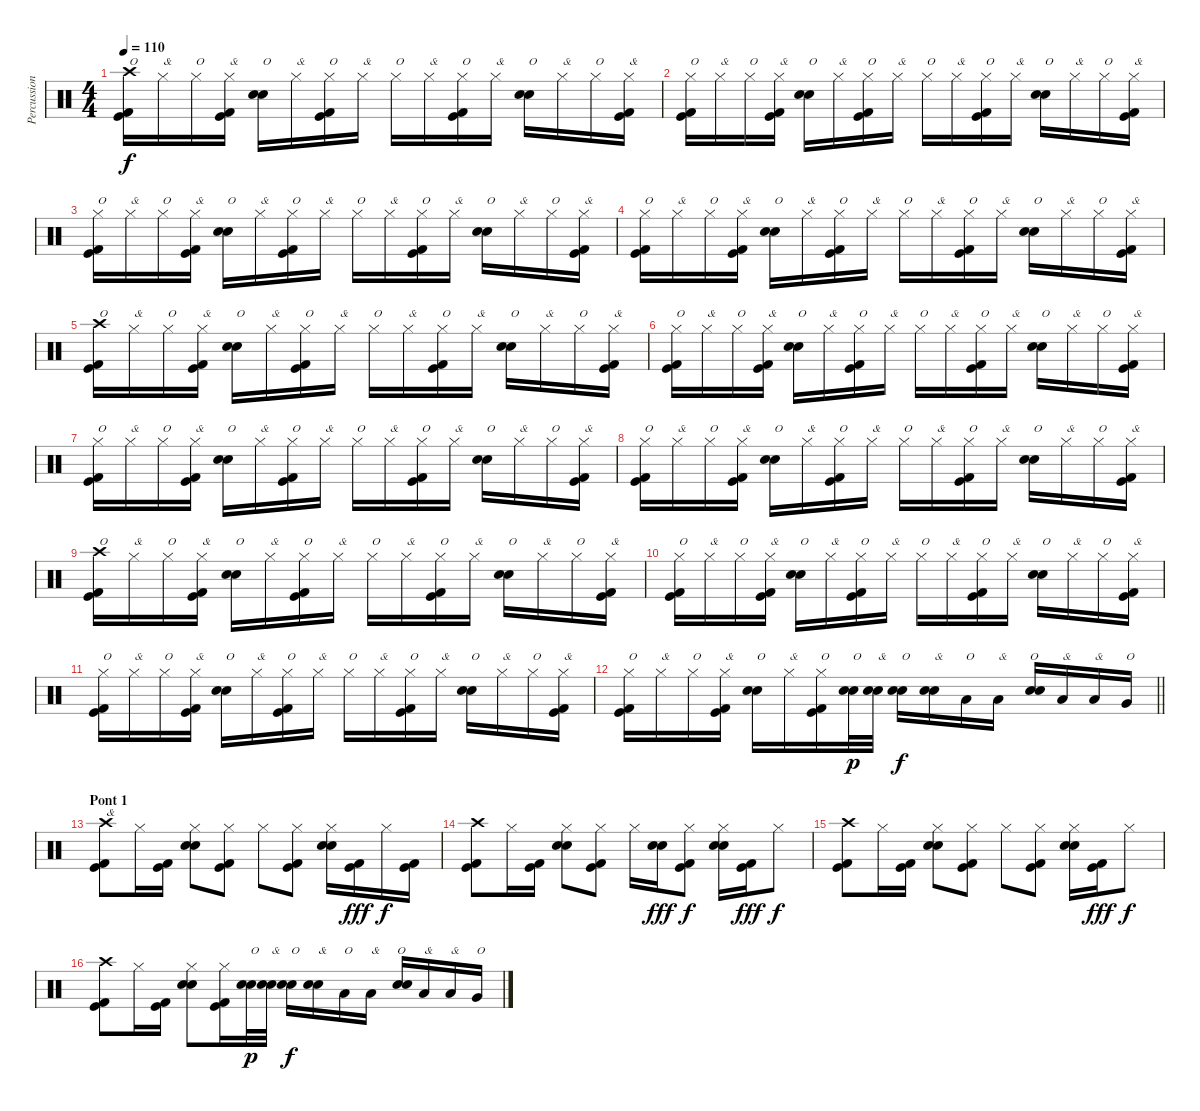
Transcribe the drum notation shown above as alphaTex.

\track ("Percussions" "Percussion") {instrument percussion}
\staff {score}
\articulation defaults
\ts (4 4)
\tempo 110
\clef neutral
\ks c
("Crash high (hit)" "Kick (hit)" "Kick (hit) 2").16{txt "O" dy f} "Hi-Hat (closed)".16{txt "&"} "Hi-Hat (closed)".16{txt "O"} ("Hi-Hat (closed)" "Kick (hit)" "Kick (hit) 2").16{txt "&"} ("Snare (hit) 2" "Electric Snare (hit)").16{txt "O"} "Hi-Hat (closed)".16{txt "&"} ("Hi-Hat (closed)" "Kick (hit) 2" "Kick (hit)").16{txt "O"} "Hi-Hat (closed)".16{txt "&"} "Hi-Hat (closed)".16{txt "O"} "Hi-Hat (closed)".16{txt "&"} ("Hi-Hat (closed)" "Kick (hit)" "Kick (hit) 2").16{txt "O"} "Hi-Hat (closed)".16{txt "&"} ("Snare (hit) 2" "Electric Snare (hit)").16{txt "O"} "Hi-Hat (closed)".16{txt "&"} "Hi-Hat (closed)".16{txt "O"} ("Hi-Hat (closed)" "Kick (hit)" "Kick (hit) 2").16{txt "&"} |
("Hi-Hat (closed)" "Kick (hit)" "Kick (hit) 2").16{txt "O"} "Hi-Hat (closed)".16{txt "&"} "Hi-Hat (closed)".16{txt "O"} ("Hi-Hat (closed)" "Kick (hit)" "Kick (hit) 2").16{txt "&"} ("Snare (hit) 2" "Electric Snare (hit)").16{txt "O"} "Hi-Hat (closed)".16{txt "&"} ("Hi-Hat (closed)" "Kick (hit) 2" "Kick (hit)").16{txt "O"} "Hi-Hat (closed)".16{txt "&"} "Hi-Hat (closed)".16{txt "O"} "Hi-Hat (closed)".16{txt "&"} ("Hi-Hat (closed)" "Kick (hit)" "Kick (hit) 2").16{txt "O"} "Hi-Hat (closed)".16{txt "&"} ("Snare (hit) 2" "Electric Snare (hit)").16{txt "O"} "Hi-Hat (closed)".16{txt "&"} "Hi-Hat (closed)".16{txt "O"} ("Hi-Hat (closed)" "Kick (hit)" "Kick (hit) 2").16{txt "&"} |
("Hi-Hat (closed)" "Kick (hit)" "Kick (hit) 2").16{txt "O"} "Hi-Hat (closed)".16{txt "&"} "Hi-Hat (closed)".16{txt "O"} ("Hi-Hat (closed)" "Kick (hit)" "Kick (hit) 2").16{txt "&"} ("Snare (hit) 2" "Electric Snare (hit)").16{txt "O"} "Hi-Hat (closed)".16{txt "&"} ("Hi-Hat (closed)" "Kick (hit) 2" "Kick (hit)").16{txt "O"} "Hi-Hat (closed)".16{txt "&"} "Hi-Hat (closed)".16{txt "O"} "Hi-Hat (closed)".16{txt "&"} ("Hi-Hat (closed)" "Kick (hit)" "Kick (hit) 2").16{txt "O"} "Hi-Hat (closed)".16{txt "&"} ("Snare (hit) 2" "Electric Snare (hit)").16{txt "O"} "Hi-Hat (closed)".16{txt "&"} "Hi-Hat (closed)".16{txt "O"} ("Hi-Hat (closed)" "Kick (hit)" "Kick (hit) 2").16{txt "&"} |
("Hi-Hat (closed)" "Kick (hit)" "Kick (hit) 2").16{txt "O"} "Hi-Hat (closed)".16{txt "&"} "Hi-Hat (closed)".16{txt "O"} ("Hi-Hat (closed)" "Kick (hit)" "Kick (hit) 2").16{txt "&"} ("Snare (hit) 2" "Electric Snare (hit)").16{txt "O"} "Hi-Hat (closed)".16{txt "&"} ("Hi-Hat (closed)" "Kick (hit) 2" "Kick (hit)").16{txt "O"} "Hi-Hat (closed)".16{txt "&"} "Hi-Hat (closed)".16{txt "O"} "Hi-Hat (closed)".16{txt "&"} ("Hi-Hat (closed)" "Kick (hit)" "Kick (hit) 2").16{txt "O"} "Hi-Hat (closed)".16{txt "&"} ("Snare (hit) 2" "Electric Snare (hit)").16{txt "O"} "Hi-Hat (closed)".16{txt "&"} "Hi-Hat (closed)".16{txt "O"} ("Hi-Hat (closed)" "Kick (hit)" "Kick (hit) 2").16{txt "&"} |
("Crash high (hit)" "Kick (hit)" "Kick (hit) 2").16{txt "O"} "Hi-Hat (closed)".16{txt "&"} "Hi-Hat (closed)".16{txt "O"} ("Hi-Hat (closed)" "Kick (hit)" "Kick (hit) 2").16{txt "&"} ("Snare (hit) 2" "Electric Snare (hit)").16{txt "O"} "Hi-Hat (closed)".16{txt "&"} ("Hi-Hat (closed)" "Kick (hit) 2" "Kick (hit)").16{txt "O"} "Hi-Hat (closed)".16{txt "&"} "Hi-Hat (closed)".16{txt "O"} "Hi-Hat (closed)".16{txt "&"} ("Hi-Hat (closed)" "Kick (hit)" "Kick (hit) 2").16{txt "O"} "Hi-Hat (closed)".16{txt "&"} ("Snare (hit) 2" "Electric Snare (hit)").16{txt "O"} "Hi-Hat (closed)".16{txt "&"} "Hi-Hat (closed)".16{txt "O"} ("Hi-Hat (closed)" "Kick (hit)" "Kick (hit) 2").16{txt "&"} |
("Hi-Hat (closed)" "Kick (hit)" "Kick (hit) 2").16{txt "O"} "Hi-Hat (closed)".16{txt "&"} "Hi-Hat (closed)".16{txt "O"} ("Hi-Hat (closed)" "Kick (hit)" "Kick (hit) 2").16{txt "&"} ("Snare (hit) 2" "Electric Snare (hit)").16{txt "O"} "Hi-Hat (closed)".16{txt "&"} ("Hi-Hat (closed)" "Kick (hit) 2" "Kick (hit)").16{txt "O"} "Hi-Hat (closed)".16{txt "&"} "Hi-Hat (closed)".16{txt "O"} "Hi-Hat (closed)".16{txt "&"} ("Hi-Hat (closed)" "Kick (hit)" "Kick (hit) 2").16{txt "O"} "Hi-Hat (closed)".16{txt "&"} ("Snare (hit) 2" "Electric Snare (hit)").16{txt "O"} "Hi-Hat (closed)".16{txt "&"} "Hi-Hat (closed)".16{txt "O"} ("Hi-Hat (closed)" "Kick (hit)" "Kick (hit) 2").16{txt "&"} |
("Hi-Hat (closed)" "Kick (hit)" "Kick (hit) 2").16{txt "O"} "Hi-Hat (closed)".16{txt "&"} "Hi-Hat (closed)".16{txt "O"} ("Hi-Hat (closed)" "Kick (hit)" "Kick (hit) 2").16{txt "&"} ("Snare (hit) 2" "Electric Snare (hit)").16{txt "O"} "Hi-Hat (closed)".16{txt "&"} ("Hi-Hat (closed)" "Kick (hit) 2" "Kick (hit)").16{txt "O"} "Hi-Hat (closed)".16{txt "&"} "Hi-Hat (closed)".16{txt "O"} "Hi-Hat (closed)".16{txt "&"} ("Hi-Hat (closed)" "Kick (hit)" "Kick (hit) 2").16{txt "O"} "Hi-Hat (closed)".16{txt "&"} ("Snare (hit) 2" "Electric Snare (hit)").16{txt "O"} "Hi-Hat (closed)".16{txt "&"} "Hi-Hat (closed)".16{txt "O"} ("Hi-Hat (closed)" "Kick (hit)" "Kick (hit) 2").16{txt "&"} |
("Hi-Hat (closed)" "Kick (hit)" "Kick (hit) 2").16{txt "O"} "Hi-Hat (closed)".16{txt "&"} "Hi-Hat (closed)".16{txt "O"} ("Hi-Hat (closed)" "Kick (hit)" "Kick (hit) 2").16{txt "&"} ("Snare (hit) 2" "Electric Snare (hit)").16{txt "O"} "Hi-Hat (closed)".16{txt "&"} ("Hi-Hat (closed)" "Kick (hit) 2" "Kick (hit)").16{txt "O"} "Hi-Hat (closed)".16{txt "&"} "Hi-Hat (closed)".16{txt "O"} "Hi-Hat (closed)".16{txt "&"} ("Hi-Hat (closed)" "Kick (hit)" "Kick (hit) 2").16{txt "O"} "Hi-Hat (closed)".16{txt "&"} ("Snare (hit) 2" "Electric Snare (hit)").16{txt "O"} "Hi-Hat (closed)".16{txt "&"} "Hi-Hat (closed)".16{txt "O"} ("Hi-Hat (closed)" "Kick (hit)" "Kick (hit) 2").16{txt "&"} |
("Crash high (hit)" "Kick (hit)" "Kick (hit) 2").16{txt "O"} "Hi-Hat (closed)".16{txt "&"} "Hi-Hat (closed)".16{txt "O"} ("Hi-Hat (closed)" "Kick (hit)" "Kick (hit) 2").16{txt "&"} ("Snare (hit) 2" "Electric Snare (hit)").16{txt "O"} "Hi-Hat (closed)".16{txt "&"} ("Hi-Hat (closed)" "Kick (hit) 2" "Kick (hit)").16{txt "O"} "Hi-Hat (closed)".16{txt "&"} "Hi-Hat (closed)".16{txt "O"} "Hi-Hat (closed)".16{txt "&"} ("Hi-Hat (closed)" "Kick (hit)" "Kick (hit) 2").16{txt "O"} "Hi-Hat (closed)".16{txt "&"} ("Snare (hit) 2" "Electric Snare (hit)").16{txt "O"} "Hi-Hat (closed)".16{txt "&"} "Hi-Hat (closed)".16{txt "O"} ("Hi-Hat (closed)" "Kick (hit)" "Kick (hit) 2").16{txt "&"} |
("Hi-Hat (closed)" "Kick (hit)" "Kick (hit) 2").16{txt "O"} "Hi-Hat (closed)".16{txt "&"} "Hi-Hat (closed)".16{txt "O"} ("Hi-Hat (closed)" "Kick (hit)" "Kick (hit) 2").16{txt "&"} ("Snare (hit) 2" "Electric Snare (hit)").16{txt "O"} "Hi-Hat (closed)".16{txt "&"} ("Hi-Hat (closed)" "Kick (hit) 2" "Kick (hit)").16{txt "O"} "Hi-Hat (closed)".16{txt "&"} "Hi-Hat (closed)".16{txt "O"} "Hi-Hat (closed)".16{txt "&"} ("Hi-Hat (closed)" "Kick (hit)" "Kick (hit) 2").16{txt "O"} "Hi-Hat (closed)".16{txt "&"} ("Snare (hit) 2" "Electric Snare (hit)").16{txt "O"} "Hi-Hat (closed)".16{txt "&"} "Hi-Hat (closed)".16{txt "O"} ("Hi-Hat (closed)" "Kick (hit)" "Kick (hit) 2").16{txt "&"} |
("Hi-Hat (closed)" "Kick (hit)" "Kick (hit) 2").16{txt "O"} "Hi-Hat (closed)".16{txt "&"} "Hi-Hat (closed)".16{txt "O"} ("Hi-Hat (closed)" "Kick (hit)" "Kick (hit) 2").16{txt "&"} ("Snare (hit) 2" "Electric Snare (hit)").16{txt "O"} "Hi-Hat (closed)".16{txt "&"} ("Hi-Hat (closed)" "Kick (hit) 2" "Kick (hit)").16{txt "O"} "Hi-Hat (closed)".16{txt "&"} "Hi-Hat (closed)".16{txt "O"} "Hi-Hat (closed)".16{txt "&"} ("Hi-Hat (closed)" "Kick (hit)" "Kick (hit) 2").16{txt "O"} "Hi-Hat (closed)".16{txt "&"} ("Snare (hit) 2" "Electric Snare (hit)").16{txt "O"} "Hi-Hat (closed)".16{txt "&"} "Hi-Hat (closed)".16{txt "O"} ("Hi-Hat (closed)" "Kick (hit)" "Kick (hit) 2").16{txt "&"} |
\barLineRight lightlight
("Hi-Hat (closed)" "Kick (hit)" "Kick (hit) 2").16{txt "O"} "Hi-Hat (closed)".16{txt "&"} "Hi-Hat (closed)".16{txt "O"} ("Hi-Hat (closed)" "Kick (hit)" "Kick (hit) 2").16{txt "&"} ("Snare (hit) 2" "Electric Snare (hit)").16{txt "O"} "Hi-Hat (closed)".16{txt "&"} ("Hi-Hat (closed)" "Kick (hit) 2" "Kick (hit)").16{txt "O"} ("Snare (hit) 2" "Electric Snare (hit)").32{txt "O" dy p} ("Snare (hit) 2" "Electric Snare (hit)").32{txt "&"} ("Snare (hit) 2" "Electric Snare (hit)").16{txt "O" dy f} ("Snare (hit) 2" "Electric Snare (hit)").16{txt "&"} "Low Tom (hit)".16{txt "O"} "Low Tom (hit)".16{txt "&"} ("Snare (hit) 2" "Electric Snare (hit)").16{txt "O"} "Low Tom (hit)".16{txt "&"} "Low Tom (hit)".16{txt "&"} "Very Low Tom (hit)".16{txt "O"} |
\section ("" "Pont 1")
("Crash high (hit)" "Kick (hit)" "Kick (hit) 2").8{txt "&"} "Hi-Hat (closed)".16 ("Kick (hit)" "Kick (hit) 2").16 ("Hi-Hat (closed)" "Snare (hit) 2" "Electric Snare (hit)").8 ("Hi-Hat (closed)" "Kick (hit) 2" "Kick (hit)").8 "Hi-Hat (closed)".8 ("Hi-Hat (closed)" "Kick (hit)" "Kick (hit) 2").8 ("Hi-Hat (closed)" "Snare (hit) 2" "Electric Snare (hit)").16 ("Kick (hit)" "Kick (hit) 2").16{dy fff} "Hi-Hat (closed)".16{dy f} ("Kick (hit)" "Kick (hit) 2").16 |
("Crash high (hit)" "Kick (hit)" "Kick (hit) 2").8 "Hi-Hat (closed)".16 ("Kick (hit)" "Kick (hit) 2").16 ("Hi-Hat (closed)" "Snare (hit) 2" "Electric Snare (hit)").8 ("Hi-Hat (closed)" "Kick (hit) 2" "Kick (hit)").8 "Hi-Hat (closed)".16 ("Snare (hit) 2" "Electric Snare (hit)").16{dy fff} ("Hi-Hat (closed)" "Kick (hit)" "Kick (hit) 2").8{dy f} ("Hi-Hat (closed)" "Snare (hit) 2" "Electric Snare (hit)").16 ("Kick (hit)" "Kick (hit) 2").16{dy fff} "Hi-Hat (closed)".8{dy f} |
("Crash high (hit)" "Kick (hit)" "Kick (hit) 2").8 "Hi-Hat (closed)".16 ("Kick (hit)" "Kick (hit) 2").16 ("Hi-Hat (closed)" "Snare (hit) 2" "Electric Snare (hit)").8 ("Hi-Hat (closed)" "Kick (hit) 2" "Kick (hit)").8 "Hi-Hat (closed)".8 ("Hi-Hat (closed)" "Kick (hit)" "Kick (hit) 2").8 ("Hi-Hat (closed)" "Snare (hit) 2" "Electric Snare (hit)").16 ("Kick (hit)" "Kick (hit) 2").16{dy fff} "Hi-Hat (closed)".8{dy f} |
("Crash high (hit)" "Kick (hit)" "Kick (hit) 2").8 "Hi-Hat (closed)".16 ("Kick (hit)" "Kick (hit) 2").16 ("Hi-Hat (closed)" "Snare (hit) 2" "Electric Snare (hit)").8 ("Hi-Hat (closed)" "Kick (hit) 2" "Kick (hit)").16 ("Snare (hit) 2" "Electric Snare (hit)").32{txt "O" dy p} ("Snare (hit) 2" "Electric Snare (hit)").32{txt "&"} ("Snare (hit) 2" "Electric Snare (hit)").16{txt "O" dy f} ("Snare (hit) 2" "Electric Snare (hit)").16{txt "&"} "Low Tom (hit)".16{txt "O"} "Low Tom (hit)".16{txt "&"} ("Snare (hit) 2" "Electric Snare (hit)").16{txt "O"} "Low Tom (hit)".16{txt "&"} "Low Tom (hit)".16{txt "&"} "Very Low Tom (hit)".16{txt "O"}
